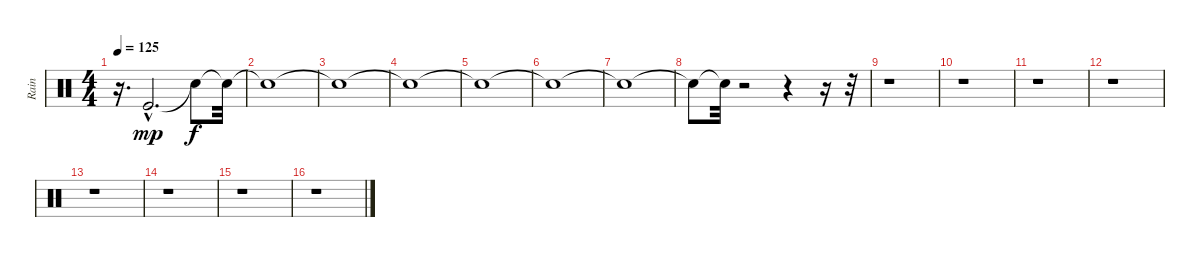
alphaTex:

\track ("Rain" "Rain") {instrument percussion}
\staff {score}
\articulation defaults
\ts (4 4)
\tempo 125
\clef neutral
\ks c
r.16{d dy mp} "Kick (hit)"{hac}.2{d} "Snare (hit)"{t}.8{dy f} "Snare (hit)"{t}.32 |
"Snare (hit)"{t}.1 |
"Snare (hit)"{t}.1 |
"Snare (hit)"{t}.1 |
"Snare (hit)"{t}.1 |
"Snare (hit)"{t}.1 |
"Snare (hit)"{t}.1 |
"Snare (hit)"{t}.8 "Snare (hit)"{t}.32 r.2 r.4 r.16 r.32 |
r.1 |
r.1 |
r.1 |
r.1 |
r.1 |
r.1 |
r.1 |
r.1
